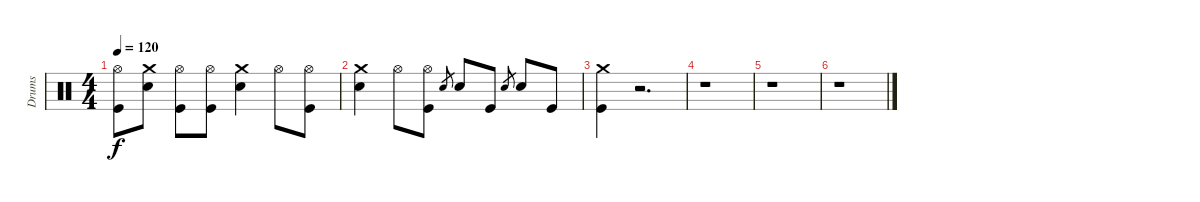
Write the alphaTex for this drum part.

\track ("Drums" "Drums") {instrument percussion}
\staff {score}
\articulation defaults
\ts (4 4)
\tempo 120
\clef neutral
\ks c
("Kick (hit)" "Hi-Hat (open)").8{dy f} ("Electric Snare (hit)" "Crash medium (hit)").8 ("Kick (hit)" "Hi-Hat (open)").8 ("Kick (hit)" "Hi-Hat (open)").8 ("Electric Snare (hit)" "Crash medium (hit)").4 "Hi-Hat (open)".8 ("Kick (hit)" "Hi-Hat (open)").8 |
("Electric Snare (hit)" "Crash medium (hit)").4 "Hi-Hat (open)".8 ("Kick (hit)" "Hi-Hat (open)").8 "Electric Snare (hit)".8{gr} "Electric Snare (hit)".8 "Kick (hit)".8 "Electric Snare (hit)".8{gr} "Electric Snare (hit)".8 "Kick (hit)".8 |
("Kick (hit)" "Crash medium (hit)").4 r.2{d} |
r.1 |
r.1 |
r.1
